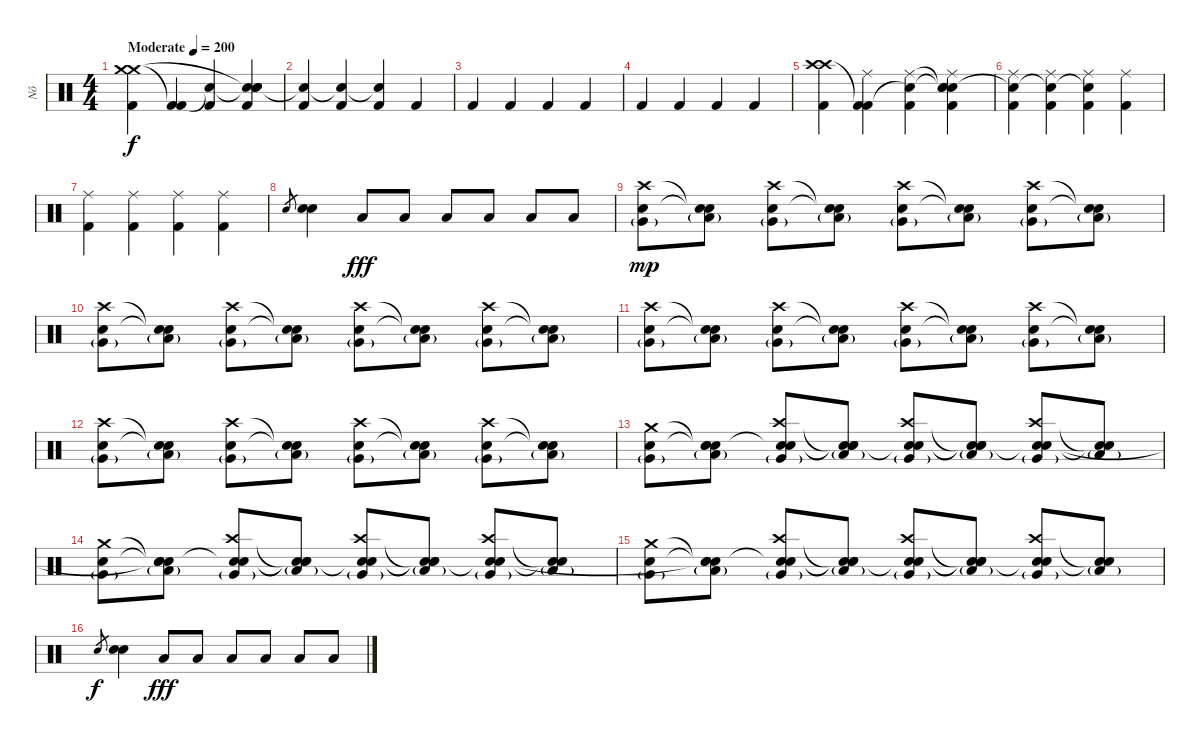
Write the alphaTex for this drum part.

\track ("Nô" "Nô") {instrument percussion}
\staff {score}
\articulation defaults
\ts (4 4)
\tempo (200 "Moderate")
\clef neutral
\ks c
("Kick (hit) 2" "Crash medium (hit)" "Crash medium (hit)").4{dy f} ("Kick (hit) 2" "Kick (hit) 2"{t}).4 ("Kick (hit) 2" "Snare (hit)"{t}).4 ("Kick (hit) 2" "Snare (hit)"{t} "Snare (hit)"{t} "Snare (hit)").4 |
("Kick (hit) 2" "Snare (hit)"{t}).4 ("Kick (hit) 2" "Snare (hit)"{t}).4 ("Kick (hit) 2" "Snare (hit)"{t}).4 "Kick (hit) 2".4 |
"Kick (hit) 2".4 "Kick (hit) 2".4 "Kick (hit) 2".4 "Kick (hit) 2".4 |
"Kick (hit) 2".4 "Kick (hit) 2".4 "Kick (hit) 2".4 "Kick (hit) 2".4 |
("Kick (hit) 2" "Crash high (hit)" "Crash high (hit)").4 ("Kick (hit) 2" "Ride (middle)" "Kick (hit) 2"{t}).4 ("Kick (hit) 2" "Ride (middle)" "Snare (hit)"{t}).4 ("Kick (hit) 2" "Snare (hit)"{t} "Snare (hit)"{t} "Ride (middle)" "Snare (hit)").4 |
("Kick (hit) 2" "Ride (middle)" "Snare (hit)"{t}).4 ("Kick (hit) 2" "Ride (middle)" "Snare (hit)"{t}).4 ("Kick (hit) 2" "Ride (middle)" "Snare (hit)"{t}).4 ("Kick (hit) 2" "Ride (middle)").4 |
("Kick (hit) 2" "Ride (middle)").4 ("Kick (hit) 2" "Ride (middle)").4 ("Kick (hit) 2" "Ride (middle)").4 ("Kick (hit) 2" "Ride (middle)").4 |
"Electric Snare (hit)".8{gr} ("Electric Snare (hit)" "Electric Snare (hit)").4 "Low Tom (hit)".8{dy fff} "Low Tom (hit)".8 "Low Tom (hit)".8 "Low Tom (hit)".8 "Low Tom (hit)".8 "Low Tom (hit)".8 |
("Very Low Tom (hit)"{g} "Electric Snare (hit)" "Crash high (hit)").8{dy mp} ("Low Floor Tom (hit)"{g} "Snare (hit)"{t} "Snare (hit)"{t}).8 ("Very Low Tom (hit)"{g} "Electric Snare (hit)" "Crash high (hit)").8 ("Low Floor Tom (hit)"{g} "Snare (hit)"{t} "Snare (hit)"{t}).8 ("Very Low Tom (hit)"{g} "Electric Snare (hit)" "Crash high (hit)").8 ("Low Floor Tom (hit)"{g} "Snare (hit)"{t} "Snare (hit)"{t}).8 ("Very Low Tom (hit)"{g} "Electric Snare (hit)" "Crash high (hit)").8 ("Low Floor Tom (hit)"{g} "Snare (hit)"{t} "Snare (hit)"{t}).8 |
("Very Low Tom (hit)"{g} "Electric Snare (hit)" "Crash high (hit)").8 ("Low Floor Tom (hit)"{g} "Snare (hit)"{t} "Snare (hit)"{t}).8 ("Very Low Tom (hit)"{g} "Electric Snare (hit)" "Crash high (hit)").8 ("Low Floor Tom (hit)"{g} "Snare (hit)"{t} "Snare (hit)"{t}).8 ("Very Low Tom (hit)"{g} "Electric Snare (hit)" "Crash high (hit)").8 ("Low Floor Tom (hit)"{g} "Snare (hit)"{t} "Snare (hit)"{t}).8 ("Very Low Tom (hit)"{g} "Electric Snare (hit)" "Crash high (hit)").8 ("Low Floor Tom (hit)"{g} "Snare (hit)"{t} "Snare (hit)"{t}).8 |
("Very Low Tom (hit)"{g} "Electric Snare (hit)" "Crash high (hit)").8 ("Low Floor Tom (hit)"{g} "Snare (hit)"{t} "Snare (hit)"{t}).8 ("Very Low Tom (hit)"{g} "Electric Snare (hit)" "Crash high (hit)").8 ("Low Floor Tom (hit)"{g} "Snare (hit)"{t} "Snare (hit)"{t}).8 ("Very Low Tom (hit)"{g} "Electric Snare (hit)" "Crash high (hit)").8 ("Low Floor Tom (hit)"{g} "Snare (hit)"{t} "Snare (hit)"{t}).8 ("Very Low Tom (hit)"{g} "Electric Snare (hit)" "Crash high (hit)").8 ("Low Floor Tom (hit)"{g} "Snare (hit)"{t} "Snare (hit)"{t}).8 |
("Very Low Tom (hit)"{g} "Electric Snare (hit)" "Crash high (hit)").8 ("Low Floor Tom (hit)"{g} "Snare (hit)"{t} "Snare (hit)"{t}).8 ("Very Low Tom (hit)"{g} "Electric Snare (hit)" "Crash high (hit)").8 ("Low Floor Tom (hit)"{g} "Snare (hit)"{t} "Snare (hit)"{t}).8 ("Very Low Tom (hit)"{g} "Electric Snare (hit)" "Crash high (hit)").8 ("Low Floor Tom (hit)"{g} "Snare (hit)"{t} "Snare (hit)"{t}).8 ("Very Low Tom (hit)"{g} "Electric Snare (hit)" "Crash high (hit)").8 ("Low Floor Tom (hit)"{g} "Snare (hit)"{t} "Snare (hit)"{t}).8 |
("Very Low Tom (hit)"{g} "Electric Snare (hit)" "Crash medium (hit)").8 ("Low Floor Tom (hit)"{g} "Snare (hit)"{t} "Snare (hit)"{t} "Snare (hit)").8 ("Very Low Tom (hit)"{g} "Electric Snare (hit)" "Crash high (hit)" "Snare (hit)"{t}).8 ("Low Floor Tom (hit)"{g} "Snare (hit)"{t} "Snare (hit)"{t} "Snare (hit)"{t}).8 ("Very Low Tom (hit)"{g} "Electric Snare (hit)" "Crash high (hit)" "Snare (hit)"{t}).8 ("Low Floor Tom (hit)"{g} "Snare (hit)"{t} "Snare (hit)"{t} "Snare (hit)"{t}).8 ("Very Low Tom (hit)"{g} "Electric Snare (hit)" "Crash high (hit)" "Snare (hit)"{t}).8 ("Low Floor Tom (hit)"{g} "Snare (hit)"{t} "Snare (hit)"{t}).8 |
("Very Low Tom (hit)"{g} "Electric Snare (hit)" "Crash medium (hit)").8 ("Low Floor Tom (hit)"{g} "Snare (hit)"{t} "Snare (hit)"{t} "Snare (hit)"{t}).8 ("Very Low Tom (hit)"{g} "Electric Snare (hit)" "Crash high (hit)" "Snare (hit)"{t}).8 ("Low Floor Tom (hit)"{g} "Snare (hit)"{t} "Snare (hit)"{t} "Snare (hit)"{t}).8 ("Very Low Tom (hit)"{g} "Electric Snare (hit)" "Crash high (hit)" "Snare (hit)"{t}).8 ("Low Floor Tom (hit)"{g} "Snare (hit)"{t} "Snare (hit)"{t} "Snare (hit)"{t}).8 ("Very Low Tom (hit)"{g} "Electric Snare (hit)" "Crash high (hit)" "Snare (hit)"{t}).8 ("Low Floor Tom (hit)"{g} "Snare (hit)"{t} "Snare (hit)"{t}).8 |
("Very Low Tom (hit)"{g} "Electric Snare (hit)" "Crash medium (hit)").8 ("Low Floor Tom (hit)"{g} "Snare (hit)"{t} "Snare (hit)"{t} "Snare (hit)"{t}).8 ("Very Low Tom (hit)"{g} "Electric Snare (hit)" "Crash high (hit)" "Snare (hit)"{t}).8 ("Low Floor Tom (hit)"{g} "Snare (hit)"{t} "Snare (hit)"{t} "Snare (hit)"{t}).8 ("Very Low Tom (hit)"{g} "Electric Snare (hit)" "Crash high (hit)" "Snare (hit)"{t}).8 ("Low Floor Tom (hit)"{g} "Snare (hit)"{t} "Snare (hit)"{t} "Snare (hit)"{t}).8 ("Very Low Tom (hit)"{g} "Electric Snare (hit)" "Crash high (hit)" "Snare (hit)"{t}).8 ("Low Floor Tom (hit)"{g} "Snare (hit)"{t} "Snare (hit)"{t}).8 |
"Electric Snare (hit)".8{gr dy f} ("Electric Snare (hit)" "Electric Snare (hit)").4 "Low Tom (hit)".8{dy fff} "Low Tom (hit)".8 "Low Tom (hit)".8 "Low Tom (hit)".8 "Low Tom (hit)".8 "Low Tom (hit)".8
